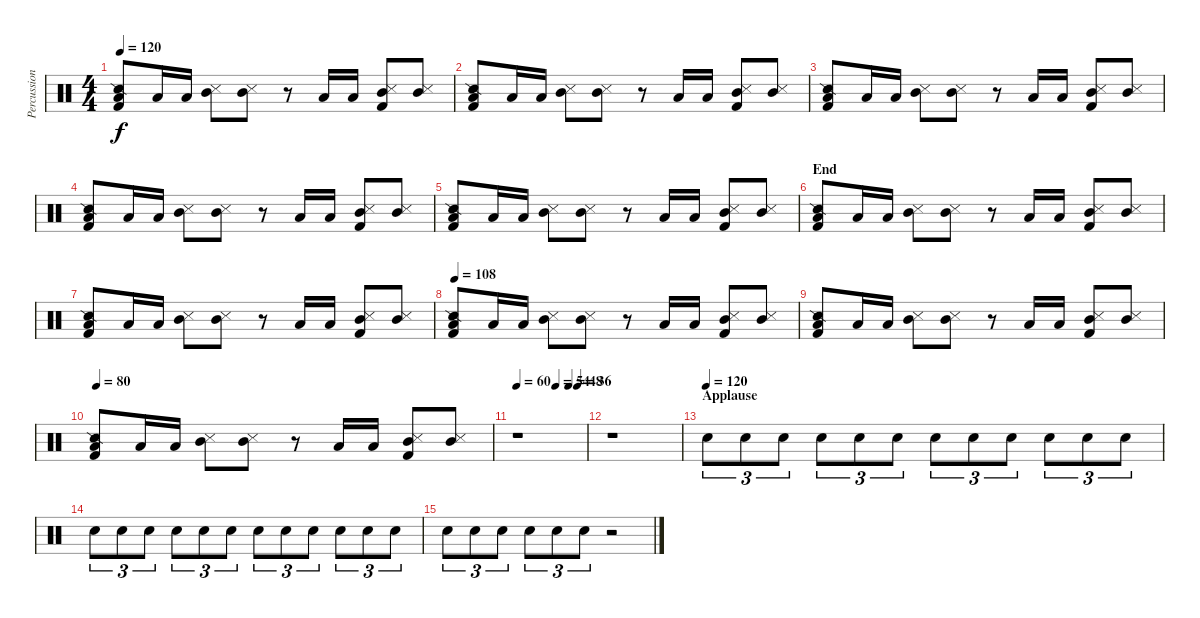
\track ("Percussion" "Percussion") {instrument percussion}
\staff {score}
\articulation defaults
\ts (4 4)
\tempo 120
\clef neutral
\ks c
("Kick (hit) 2" "Snare (side stick) 2" "Low Floor Tom (hit)").8{dy f} "Low Tom (hit)".16 "Low Tom (hit)".16 ("Snare (side stick) 3" "Mid Tom (hit)").8 ("Snare (side stick) 3" "Mid Tom (hit)").8 r.8 "Low Tom (hit)".16 "Low Tom (hit)".16 ("Kick (hit) 2" "Snare (side stick) 3" "Mid Tom (hit)").8 ("Snare (side stick) 3" "Mid Tom (hit)").8 |
("Kick (hit) 2" "Snare (side stick) 2" "Low Floor Tom (hit)").8 "Low Tom (hit)".16 "Low Tom (hit)".16 ("Snare (side stick) 3" "Mid Tom (hit)").8 ("Snare (side stick) 3" "Mid Tom (hit)").8 r.8 "Low Tom (hit)".16 "Low Tom (hit)".16 ("Kick (hit) 2" "Snare (side stick) 3" "Mid Tom (hit)").8 ("Snare (side stick) 3" "Mid Tom (hit)").8 |
("Kick (hit) 2" "Snare (side stick) 2" "Low Floor Tom (hit)").8 "Low Tom (hit)".16 "Low Tom (hit)".16 ("Snare (side stick) 3" "Mid Tom (hit)").8 ("Snare (side stick) 3" "Mid Tom (hit)").8 r.8 "Low Tom (hit)".16 "Low Tom (hit)".16 ("Kick (hit) 2" "Snare (side stick) 3" "Mid Tom (hit)").8 ("Snare (side stick) 3" "Mid Tom (hit)").8 |
("Kick (hit) 2" "Snare (side stick) 2" "Low Floor Tom (hit)").8 "Low Tom (hit)".16 "Low Tom (hit)".16 ("Snare (side stick) 3" "Mid Tom (hit)").8 ("Snare (side stick) 3" "Mid Tom (hit)").8 r.8 "Low Tom (hit)".16 "Low Tom (hit)".16 ("Kick (hit) 2" "Snare (side stick) 3" "Mid Tom (hit)").8 ("Snare (side stick) 3" "Mid Tom (hit)").8 |
("Kick (hit) 2" "Snare (side stick) 2" "Low Floor Tom (hit)").8 "Low Tom (hit)".16 "Low Tom (hit)".16 ("Snare (side stick) 3" "Mid Tom (hit)").8 ("Snare (side stick) 3" "Mid Tom (hit)").8 r.8 "Low Tom (hit)".16 "Low Tom (hit)".16 ("Kick (hit) 2" "Snare (side stick) 3" "Mid Tom (hit)").8 ("Snare (side stick) 3" "Mid Tom (hit)").8 |
\section ("" "End")
("Kick (hit) 2" "Snare (side stick) 2" "Low Floor Tom (hit)").8 "Low Tom (hit)".16 "Low Tom (hit)".16 ("Snare (side stick) 3" "Mid Tom (hit)").8 ("Snare (side stick) 3" "Mid Tom (hit)").8 r.8 "Low Tom (hit)".16 "Low Tom (hit)".16 ("Kick (hit) 2" "Snare (side stick) 3" "Mid Tom (hit)").8 ("Snare (side stick) 3" "Mid Tom (hit)").8 |
("Kick (hit) 2" "Snare (side stick) 2" "Low Floor Tom (hit)").8 "Low Tom (hit)".16 "Low Tom (hit)".16 ("Snare (side stick) 3" "Mid Tom (hit)").8 ("Snare (side stick) 3" "Mid Tom (hit)").8 r.8 "Low Tom (hit)".16 "Low Tom (hit)".16 ("Kick (hit) 2" "Snare (side stick) 3" "Mid Tom (hit)").8 ("Snare (side stick) 3" "Mid Tom (hit)").8 |
\tempo 108
("Kick (hit) 2" "Snare (side stick) 2" "Low Floor Tom (hit)").8 "Low Tom (hit)".16 "Low Tom (hit)".16 ("Snare (side stick) 3" "Mid Tom (hit)").8 ("Snare (side stick) 3" "Mid Tom (hit)").8 r.8 "Low Tom (hit)".16 "Low Tom (hit)".16 ("Kick (hit) 2" "Snare (side stick) 3" "Mid Tom (hit)").8 ("Snare (side stick) 3" "Mid Tom (hit)").8 |
("Kick (hit) 2" "Snare (side stick) 2" "Low Floor Tom (hit)").8 "Low Tom (hit)".16 "Low Tom (hit)".16 ("Snare (side stick) 3" "Mid Tom (hit)").8 ("Snare (side stick) 3" "Mid Tom (hit)").8 r.8 "Low Tom (hit)".16 "Low Tom (hit)".16 ("Kick (hit) 2" "Snare (side stick) 3" "Mid Tom (hit)").8 ("Snare (side stick) 3" "Mid Tom (hit)").8 |
\tempo 80
("Kick (hit) 2" "Snare (side stick) 2" "Low Floor Tom (hit)").8 "Low Tom (hit)".16 "Low Tom (hit)".16 ("Snare (side stick) 3" "Mid Tom (hit)").8 ("Snare (side stick) 3" "Mid Tom (hit)").8 r.8 "Low Tom (hit)".16 "Low Tom (hit)".16 ("Kick (hit) 2" "Snare (side stick) 3" "Mid Tom (hit)").8 ("Snare (side stick) 3" "Mid Tom (hit)").8 |
\tempo 60
\tempo (54 0.5625)
\tempo (48 0.75)
\tempo (36 0.875)
r.1 |
r.1 |
\section ("" "Applause")
\tempo (120)
"Hand Clap (hit)".8{tu (3 2)} "Hand Clap (hit)".8{tu (3 2)} "Hand Clap (hit)".8{tu (3 2)} "Hand Clap (hit)".8{tu (3 2)} "Hand Clap (hit)".8{tu (3 2)} "Hand Clap (hit)".8{tu (3 2)} "Hand Clap (hit)".8{tu (3 2)} "Hand Clap (hit)".8{tu (3 2)} "Hand Clap (hit)".8{tu (3 2)} "Hand Clap (hit)".8{tu (3 2)} "Hand Clap (hit)".8{tu (3 2)} "Hand Clap (hit)".8{tu (3 2)} |
"Hand Clap (hit)".8{tu (3 2) volume 8} "Hand Clap (hit)".8{tu (3 2)} "Hand Clap (hit)".8{tu (3 2)} "Hand Clap (hit)".8{tu (3 2)} "Hand Clap (hit)".8{tu (3 2)} "Hand Clap (hit)".8{tu (3 2)} "Hand Clap (hit)".8{tu (3 2)} "Hand Clap (hit)".8{tu (3 2)} "Hand Clap (hit)".8{tu (3 2)} "Hand Clap (hit)".8{tu (3 2)} "Hand Clap (hit)".8{tu (3 2)} "Hand Clap (hit)".8{tu (3 2)} |
"Hand Clap (hit)".8{tu (3 2) volume 4} "Hand Clap (hit)".8{tu (3 2)} "Hand Clap (hit)".8{tu (3 2)} "Hand Clap (hit)".8{tu (3 2)} "Hand Clap (hit)".8{tu (3 2)} "Hand Clap (hit)".8{tu (3 2)} r.2
